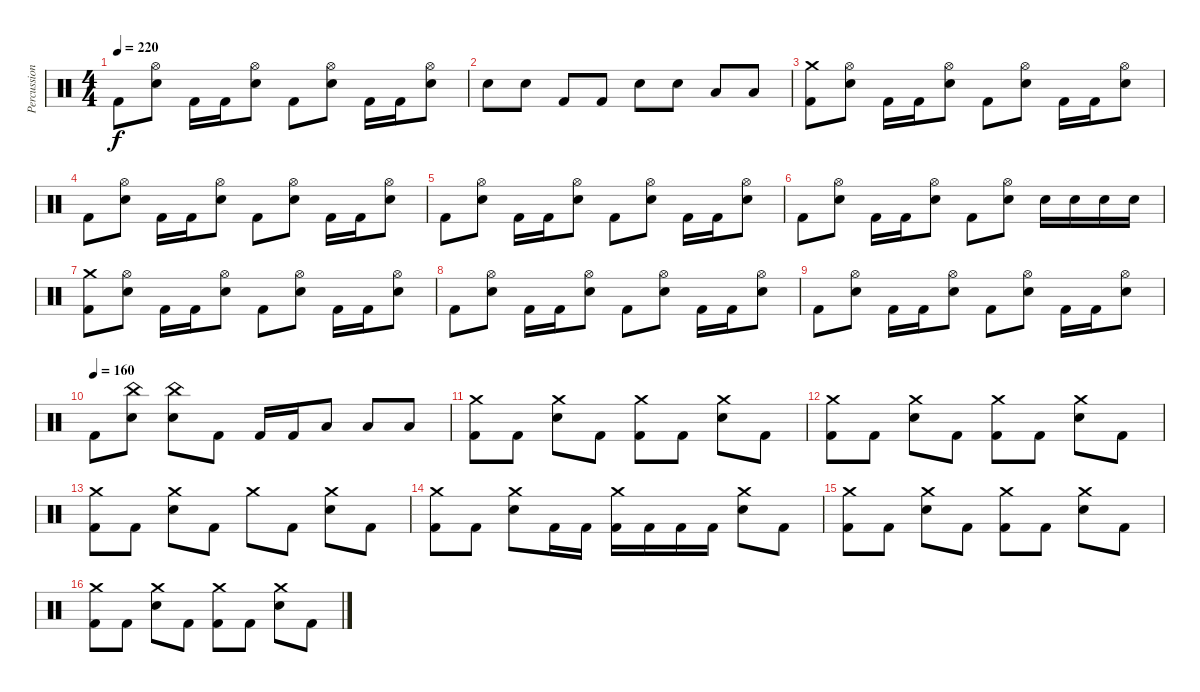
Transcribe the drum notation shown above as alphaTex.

\track ("Percussions" "Percussion") {instrument percussion}
\staff {score}
\articulation defaults
\ts (4 4)
\tempo 220
\clef neutral
\ks c "Kick (hit) 2".8{dy f}
("Electric Snare (hit)" "Hi-Hat (open)").8 "Kick (hit) 2".16 "Kick (hit) 2".16 ("Electric Snare (hit)" "Hi-Hat (open)").8 "Kick (hit) 2".8 ("Electric Snare (hit)" "Hi-Hat (open)").8 "Kick (hit) 2".16 "Kick (hit) 2".16 ("Electric Snare (hit)" "Hi-Hat (open)").8 |
"Electric Snare (hit)".8 "Electric Snare (hit)".8 "Kick (hit) 2".8 "Kick (hit) 2".8 "Electric Snare (hit)".8 "Electric Snare (hit)".8 "Low Tom (hit)".8 "Low Tom (hit)".8 |
("Kick (hit) 2" "Crash medium (hit)").8 ("Electric Snare (hit)" "Hi-Hat (open)").8 "Kick (hit) 2".16 "Kick (hit) 2".16 ("Electric Snare (hit)" "Hi-Hat (open)").8 "Kick (hit) 2".8 ("Electric Snare (hit)" "Hi-Hat (open)").8 "Kick (hit) 2".16 "Kick (hit) 2".16 ("Electric Snare (hit)" "Hi-Hat (open)").8 |
"Kick (hit) 2".8 ("Electric Snare (hit)" "Hi-Hat (open)").8 "Kick (hit) 2".16 "Kick (hit) 2".16 ("Electric Snare (hit)" "Hi-Hat (open)").8 "Kick (hit) 2".8 ("Electric Snare (hit)" "Hi-Hat (open)").8 "Kick (hit) 2".16 "Kick (hit) 2".16 ("Electric Snare (hit)" "Hi-Hat (open)").8 |
"Kick (hit) 2".8 ("Electric Snare (hit)" "Hi-Hat (open)").8 "Kick (hit) 2".16 "Kick (hit) 2".16 ("Electric Snare (hit)" "Hi-Hat (open)").8 "Kick (hit) 2".8 ("Electric Snare (hit)" "Hi-Hat (open)").8 "Kick (hit) 2".16 "Kick (hit) 2".16 ("Electric Snare (hit)" "Hi-Hat (open)").8 |
"Kick (hit) 2".8 ("Electric Snare (hit)" "Hi-Hat (open)").8 "Kick (hit) 2".16 "Kick (hit) 2".16 ("Electric Snare (hit)" "Hi-Hat (open)").8 "Kick (hit) 2".8 ("Electric Snare (hit)" "Hi-Hat (open)").8 "Electric Snare (hit)".16 "Electric Snare (hit)".16 "Electric Snare (hit)".16 "Electric Snare (hit)".16 |
("Kick (hit) 2" "Crash medium (hit)").8 ("Electric Snare (hit)" "Hi-Hat (open)").8 "Kick (hit) 2".16 "Kick (hit) 2".16 ("Electric Snare (hit)" "Hi-Hat (open)").8 "Kick (hit) 2".8 ("Electric Snare (hit)" "Hi-Hat (open)").8 "Kick (hit) 2".16 "Kick (hit) 2".16 ("Electric Snare (hit)" "Hi-Hat (open)").8 |
"Kick (hit) 2".8 ("Electric Snare (hit)" "Hi-Hat (open)").8 "Kick (hit) 2".16 "Kick (hit) 2".16 ("Electric Snare (hit)" "Hi-Hat (open)").8 "Kick (hit) 2".8 ("Electric Snare (hit)" "Hi-Hat (open)").8 "Kick (hit) 2".16 "Kick (hit) 2".16 ("Electric Snare (hit)" "Hi-Hat (open)").8 |
"Kick (hit) 2".8 ("Electric Snare (hit)" "Hi-Hat (open)").8 "Kick (hit) 2".16 "Kick (hit) 2".16 ("Electric Snare (hit)" "Hi-Hat (open)").8 "Kick (hit) 2".8 ("Electric Snare (hit)" "Hi-Hat (open)").8 "Kick (hit) 2".16 "Kick (hit) 2".16 ("Electric Snare (hit)" "Hi-Hat (open)").8 |
\tempo (160)
"Kick (hit) 2".8 ("Electric Snare (hit)" "China (hit)").8 ("Electric Snare (hit)" "China (hit)").8 "Kick (hit) 2".8 "Kick (hit) 2".16 "Kick (hit) 2".16 "Low Tom (hit)".8 "Low Tom (hit)".8 "Low Tom (hit)".8 |
("Kick (hit) 2" "Crash medium (hit)").8 "Kick (hit) 2".8 ("Electric Snare (hit)" "Crash medium (hit)").8 "Kick (hit) 2".8 ("Kick (hit) 2" "Crash medium (hit)").8 "Kick (hit) 2".8 ("Electric Snare (hit)" "Crash medium (hit)").8 "Kick (hit) 2".8 |
("Kick (hit) 2" "Crash medium (hit)").8 "Kick (hit) 2".8 ("Electric Snare (hit)" "Crash medium (hit)").8 "Kick (hit) 2".8 ("Kick (hit) 2" "Crash medium (hit)").8 "Kick (hit) 2".8 ("Electric Snare (hit)" "Crash medium (hit)").8 "Kick (hit) 2".8 |
("Kick (hit) 2" "Crash medium (hit)").8 "Kick (hit) 2".8 ("Electric Snare (hit)" "Crash medium (hit)").8 "Kick (hit) 2".8 "Crash medium (hit)".8 "Kick (hit) 2".8 ("Electric Snare (hit)" "Crash medium (hit)").8 "Kick (hit) 2".8 |
("Kick (hit) 2" "Crash medium (hit)").8 "Kick (hit) 2".8 ("Electric Snare (hit)" "Crash medium (hit)").8 "Kick (hit) 2".16 "Kick (hit) 2".16 ("Kick (hit) 2" "Crash medium (hit)").16 "Kick (hit) 2".16 "Kick (hit) 2".16 "Kick (hit) 2".16 ("Electric Snare (hit)" "Crash medium (hit)").8 "Kick (hit) 2".8 |
("Kick (hit) 2" "Crash medium (hit)").8 "Kick (hit) 2".8 ("Electric Snare (hit)" "Crash medium (hit)").8 "Kick (hit) 2".8 ("Kick (hit) 2" "Crash medium (hit)").8 "Kick (hit) 2".8 ("Electric Snare (hit)" "Crash medium (hit)").8 "Kick (hit) 2".8 |
("Kick (hit) 2" "Crash medium (hit)").8 "Kick (hit) 2".8 ("Electric Snare (hit)" "Crash medium (hit)").8 "Kick (hit) 2".8 ("Kick (hit) 2" "Crash medium (hit)").8 "Kick (hit) 2".8 ("Electric Snare (hit)" "Crash medium (hit)").8 "Kick (hit) 2".8
